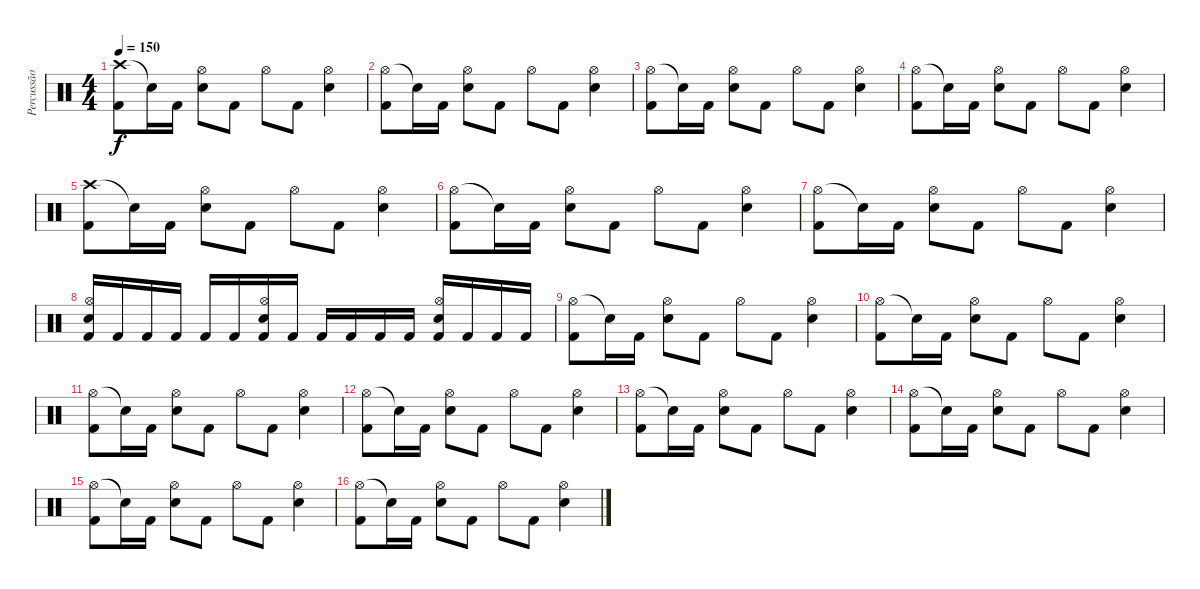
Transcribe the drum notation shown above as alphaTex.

\track ("Percussão" "Percussão") {instrument percussion}
\staff {score}
\articulation defaults
\ts (4 4)
\tempo 150
\clef neutral
\ks c
("Crash high (hit)" "Kick (hit) 2").8{dy f} "Snare (hit)"{t}.16 "Kick (hit) 2".16 ("Hi-Hat (open)" "Electric Snare (hit)").8 "Kick (hit) 2".8 "Hi-Hat (open)".8 "Kick (hit) 2".8 ("Hi-Hat (open)" "Electric Snare (hit)").4 |
("Hi-Hat (open)" "Kick (hit) 2").8 "Snare (hit)"{t}.16 "Kick (hit) 2".16 ("Hi-Hat (open)" "Electric Snare (hit)").8 "Kick (hit) 2".8 "Hi-Hat (open)".8 "Kick (hit) 2".8 ("Hi-Hat (open)" "Electric Snare (hit)").4 |
("Hi-Hat (open)" "Kick (hit) 2").8 "Snare (hit)"{t}.16 "Kick (hit) 2".16 ("Hi-Hat (open)" "Electric Snare (hit)").8 "Kick (hit) 2".8 "Hi-Hat (open)".8 "Kick (hit) 2".8 ("Hi-Hat (open)" "Electric Snare (hit)").4 |
("Hi-Hat (open)" "Kick (hit) 2").8 "Snare (hit)"{t}.16 "Kick (hit) 2".16 ("Hi-Hat (open)" "Electric Snare (hit)").8 "Kick (hit) 2".8 "Hi-Hat (open)".8 "Kick (hit) 2".8 ("Hi-Hat (open)" "Electric Snare (hit)").4 |
("Crash high (hit)" "Kick (hit) 2").8 "Snare (hit)"{t}.16 "Kick (hit) 2".16 ("Hi-Hat (open)" "Electric Snare (hit)").8 "Kick (hit) 2".8 "Hi-Hat (open)".8 "Kick (hit) 2".8 ("Hi-Hat (open)" "Electric Snare (hit)").4 |
("Hi-Hat (open)" "Kick (hit) 2").8 "Snare (hit)"{t}.16 "Kick (hit) 2".16 ("Hi-Hat (open)" "Electric Snare (hit)").8 "Kick (hit) 2".8 "Hi-Hat (open)".8 "Kick (hit) 2".8 ("Hi-Hat (open)" "Electric Snare (hit)").4 |
("Hi-Hat (open)" "Kick (hit) 2").8 "Snare (hit)"{t}.16 "Kick (hit) 2".16 ("Hi-Hat (open)" "Electric Snare (hit)").8 "Kick (hit) 2".8 "Hi-Hat (open)".8 "Kick (hit) 2".8 ("Hi-Hat (open)" "Electric Snare (hit)").4 |
("Hi-Hat (open)" "Electric Snare (hit)" "Kick (hit) 2").16 "Kick (hit) 2".16 "Kick (hit) 2".16 "Kick (hit) 2".16 "Kick (hit) 2".16 "Kick (hit) 2".16 ("Hi-Hat (open)" "Electric Snare (hit)" "Kick (hit) 2").16 "Kick (hit) 2".16 "Kick (hit) 2".16 "Kick (hit) 2".16 "Kick (hit) 2".16 "Kick (hit) 2".16 ("Hi-Hat (open)" "Electric Snare (hit)" "Kick (hit) 2").16 "Kick (hit) 2".16 "Kick (hit) 2".16 "Kick (hit) 2".16 |
("Hi-Hat (open)" "Kick (hit) 2").8 "Snare (hit)"{t}.16 "Kick (hit) 2".16 ("Hi-Hat (open)" "Electric Snare (hit)").8 "Kick (hit) 2".8 "Hi-Hat (open)".8 "Kick (hit) 2".8 ("Hi-Hat (open)" "Electric Snare (hit)").4 |
("Hi-Hat (open)" "Kick (hit) 2").8 "Snare (hit)"{t}.16 "Kick (hit) 2".16 ("Hi-Hat (open)" "Electric Snare (hit)").8 "Kick (hit) 2".8 "Hi-Hat (open)".8 "Kick (hit) 2".8 ("Hi-Hat (open)" "Electric Snare (hit)").4 |
("Hi-Hat (open)" "Kick (hit) 2").8 "Snare (hit)"{t}.16 "Kick (hit) 2".16 ("Hi-Hat (open)" "Electric Snare (hit)").8 "Kick (hit) 2".8 "Hi-Hat (open)".8 "Kick (hit) 2".8 ("Hi-Hat (open)" "Electric Snare (hit)").4 |
("Hi-Hat (open)" "Kick (hit) 2").8 "Snare (hit)"{t}.16 "Kick (hit) 2".16 ("Hi-Hat (open)" "Electric Snare (hit)").8 "Kick (hit) 2".8 "Hi-Hat (open)".8 "Kick (hit) 2".8 ("Hi-Hat (open)" "Electric Snare (hit)").4 |
("Hi-Hat (open)" "Kick (hit) 2").8 "Snare (hit)"{t}.16 "Kick (hit) 2".16 ("Hi-Hat (open)" "Electric Snare (hit)").8 "Kick (hit) 2".8 "Hi-Hat (open)".8 "Kick (hit) 2".8 ("Hi-Hat (open)" "Electric Snare (hit)").4 |
("Hi-Hat (open)" "Kick (hit) 2").8 "Snare (hit)"{t}.16 "Kick (hit) 2".16 ("Hi-Hat (open)" "Electric Snare (hit)").8 "Kick (hit) 2".8 "Hi-Hat (open)".8 "Kick (hit) 2".8 ("Hi-Hat (open)" "Electric Snare (hit)").4 |
("Hi-Hat (open)" "Kick (hit) 2").8 "Snare (hit)"{t}.16 "Kick (hit) 2".16 ("Hi-Hat (open)" "Electric Snare (hit)").8 "Kick (hit) 2".8 "Hi-Hat (open)".8 "Kick (hit) 2".8 ("Hi-Hat (open)" "Electric Snare (hit)").4 |
("Hi-Hat (open)" "Kick (hit) 2").8 "Snare (hit)"{t}.16 "Kick (hit) 2".16 ("Hi-Hat (open)" "Electric Snare (hit)").8 "Kick (hit) 2".8 "Hi-Hat (open)".8 "Kick (hit) 2".8 ("Hi-Hat (open)" "Electric Snare (hit)").4
